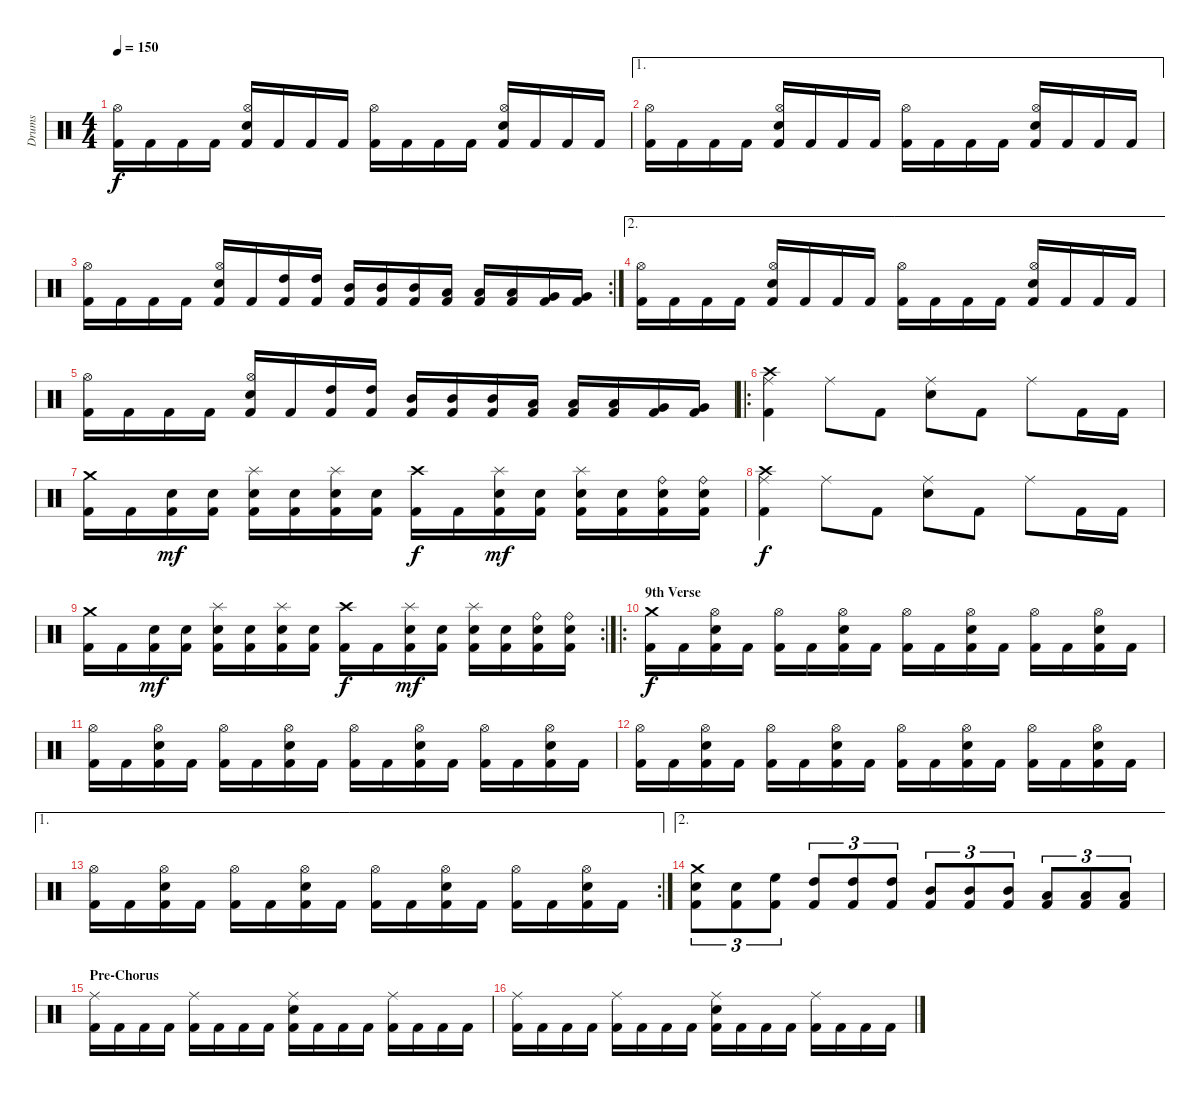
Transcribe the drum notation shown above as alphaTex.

\track ("Drums" "Drums") {instrument percussion}
\staff {score}
\articulation defaults
\ts (4 4)
\tempo 150
\clef neutral
\ks c
("Kick (hit) 2" "Hi-Hat (open)").16{dy f} "Kick (hit) 2".16 "Kick (hit) 2".16 "Kick (hit) 2".16 ("Kick (hit) 2" "Electric Snare (hit)" "Hi-Hat (open)").16 "Kick (hit) 2".16 "Kick (hit) 2".16 "Kick (hit) 2".16 ("Kick (hit) 2" "Hi-Hat (open)").16 "Kick (hit) 2".16 "Kick (hit) 2".16 "Kick (hit) 2".16 ("Kick (hit) 2" "Electric Snare (hit)" "Hi-Hat (open)").16 "Kick (hit) 2".16 "Kick (hit) 2".16 "Kick (hit) 2".16 |
\ae 1
("Kick (hit) 2" "Hi-Hat (open)").16 "Kick (hit) 2".16 "Kick (hit) 2".16 "Kick (hit) 2".16 ("Kick (hit) 2" "Electric Snare (hit)" "Hi-Hat (open)").16 "Kick (hit) 2".16 "Kick (hit) 2".16 "Kick (hit) 2".16 ("Kick (hit) 2" "Hi-Hat (open)").16 "Kick (hit) 2".16 "Kick (hit) 2".16 "Kick (hit) 2".16 ("Kick (hit) 2" "Electric Snare (hit)" "Hi-Hat (open)").16 "Kick (hit) 2".16 "Kick (hit) 2".16 "Kick (hit) 2".16 |
\rc 2
("Kick (hit) 2" "Hi-Hat (open)").16 "Kick (hit) 2".16 "Kick (hit) 2".16 "Kick (hit) 2".16 ("Kick (hit) 2" "Electric Snare (hit)" "Hi-Hat (open)").16 "Kick (hit) 2".16 ("Kick (hit) 2" "High Tom (hit)").16 ("Kick (hit) 2" "High Tom (hit)").16 ("Kick (hit) 2" "Mid Tom (hit)").16 ("Kick (hit) 2" "Mid Tom (hit)").16 ("Kick (hit) 2" "Mid Tom (hit)").16 ("Kick (hit) 2" "Low Tom (hit)").16 ("Kick (hit) 2" "Low Tom (hit)").16 ("Kick (hit) 2" "Low Tom (hit)").16 ("Kick (hit) 2" "Very Low Tom (hit)").16 ("Kick (hit) 2" "Very Low Tom (hit)").16 |
\ae 2
("Kick (hit) 2" "Hi-Hat (open)").16 "Kick (hit) 2".16 "Kick (hit) 2".16 "Kick (hit) 2".16 ("Kick (hit) 2" "Electric Snare (hit)" "Hi-Hat (open)").16 "Kick (hit) 2".16 "Kick (hit) 2".16 "Kick (hit) 2".16 ("Kick (hit) 2" "Hi-Hat (open)").16 "Kick (hit) 2".16 "Kick (hit) 2".16 "Kick (hit) 2".16 ("Kick (hit) 2" "Electric Snare (hit)" "Hi-Hat (open)").16 "Kick (hit) 2".16 "Kick (hit) 2".16 "Kick (hit) 2".16 |
("Kick (hit) 2" "Hi-Hat (open)").16 "Kick (hit) 2".16 "Kick (hit) 2".16 "Kick (hit) 2".16 ("Kick (hit) 2" "Electric Snare (hit)" "Hi-Hat (open)").16 "Kick (hit) 2".16 ("Kick (hit) 2" "High Tom (hit)").16 ("Kick (hit) 2" "High Tom (hit)").16 ("Kick (hit) 2" "Mid Tom (hit)").16 ("Kick (hit) 2" "Mid Tom (hit)").16 ("Kick (hit) 2" "Mid Tom (hit)").16 ("Kick (hit) 2" "Low Tom (hit)").16 ("Kick (hit) 2" "Low Tom (hit)").16 ("Kick (hit) 2" "Low Tom (hit)").16 ("Kick (hit) 2" "Very Low Tom (hit)").16 ("Kick (hit) 2" "Very Low Tom (hit)").16 |
\ro
("Kick (hit) 2" "Ride (middle)" "Crash high (hit)").4 "Ride (middle)".8 "Kick (hit) 2".8 ("Electric Snare (hit)" "Ride (middle)").8 "Kick (hit) 2".8 "Ride (middle)".8 "Kick (hit) 2".16 "Kick (hit) 2".16 |
("Kick (hit) 2" "Crash medium (hit)").16 "Kick (hit) 2".16 ("Kick (hit) 2" "Electric Snare (hit)").16{dy mf} ("Kick (hit) 2" "Electric Snare (hit)").16 ("Kick (hit) 2" "Electric Snare (hit)" "Splash (hit)").16 ("Kick (hit) 2" "Electric Snare (hit)").16 ("Kick (hit) 2" "Electric Snare (hit)" "Splash (hit)").16 ("Kick (hit) 2" "Electric Snare (hit)").16 ("Kick (hit) 2" "Crash high (hit)").16{dy f} "Kick (hit) 2".16 ("Kick (hit) 2" "Electric Snare (hit)" "Splash (hit)").16{dy mf} ("Kick (hit) 2" "Electric Snare (hit)").16 ("Kick (hit) 2" "Electric Snare (hit)" "Splash (hit)").16 ("Kick (hit) 2" "Electric Snare (hit)").16 ("Kick (hit) 2" "Electric Snare (hit)" "Ride (bell)").16 ("Kick (hit) 2" "Electric Snare (hit)" "Ride (bell)").16 |
("Kick (hit) 2" "Ride (middle)" "Crash high (hit)").4{dy f} "Ride (middle)".8 "Kick (hit) 2".8 ("Electric Snare (hit)" "Ride (middle)").8 "Kick (hit) 2".8 "Ride (middle)".8 "Kick (hit) 2".16 "Kick (hit) 2".16 |
\rc 2
("Kick (hit) 2" "Crash medium (hit)").16 "Kick (hit) 2".16 ("Kick (hit) 2" "Electric Snare (hit)").16{dy mf} ("Kick (hit) 2" "Electric Snare (hit)").16 ("Kick (hit) 2" "Electric Snare (hit)" "Splash (hit)").16 ("Kick (hit) 2" "Electric Snare (hit)").16 ("Kick (hit) 2" "Electric Snare (hit)" "Splash (hit)").16 ("Kick (hit) 2" "Electric Snare (hit)").16 ("Kick (hit) 2" "Crash high (hit)").16{dy f} "Kick (hit) 2".16 ("Kick (hit) 2" "Electric Snare (hit)" "Splash (hit)").16{dy mf} ("Kick (hit) 2" "Electric Snare (hit)").16 ("Kick (hit) 2" "Electric Snare (hit)" "Splash (hit)").16 ("Kick (hit) 2" "Electric Snare (hit)").16 ("Kick (hit) 2" "Electric Snare (hit)" "Ride (bell)").16 ("Kick (hit) 2" "Electric Snare (hit)" "Ride (bell)").16 |
\ro
\section ("" "9th Verse")
("Kick (hit) 2" "Crash medium (hit)").16{dy f} "Kick (hit) 2".16 ("Kick (hit) 2" "Electric Snare (hit)" "Hi-Hat (open)").16 "Kick (hit) 2".16 ("Kick (hit) 2" "Hi-Hat (open)").16 "Kick (hit) 2".16 ("Kick (hit) 2" "Electric Snare (hit)" "Hi-Hat (open)").16 "Kick (hit) 2".16 ("Kick (hit) 2" "Hi-Hat (open)").16 "Kick (hit) 2".16 ("Kick (hit) 2" "Electric Snare (hit)" "Hi-Hat (open)").16 "Kick (hit) 2".16 ("Kick (hit) 2" "Hi-Hat (open)").16 "Kick (hit) 2".16 ("Kick (hit) 2" "Electric Snare (hit)" "Hi-Hat (open)").16 "Kick (hit) 2".16 |
("Kick (hit) 2" "Hi-Hat (open)").16 "Kick (hit) 2".16 ("Kick (hit) 2" "Electric Snare (hit)" "Hi-Hat (open)").16 "Kick (hit) 2".16 ("Kick (hit) 2" "Hi-Hat (open)").16 "Kick (hit) 2".16 ("Kick (hit) 2" "Electric Snare (hit)" "Hi-Hat (open)").16 "Kick (hit) 2".16 ("Kick (hit) 2" "Hi-Hat (open)").16 "Kick (hit) 2".16 ("Kick (hit) 2" "Electric Snare (hit)" "Hi-Hat (open)").16 "Kick (hit) 2".16 ("Kick (hit) 2" "Hi-Hat (open)").16 "Kick (hit) 2".16 ("Kick (hit) 2" "Electric Snare (hit)" "Hi-Hat (open)").16 "Kick (hit) 2".16 |
("Kick (hit) 2" "Hi-Hat (open)").16 "Kick (hit) 2".16 ("Kick (hit) 2" "Electric Snare (hit)" "Hi-Hat (open)").16 "Kick (hit) 2".16 ("Kick (hit) 2" "Hi-Hat (open)").16 "Kick (hit) 2".16 ("Kick (hit) 2" "Electric Snare (hit)" "Hi-Hat (open)").16 "Kick (hit) 2".16 ("Kick (hit) 2" "Hi-Hat (open)").16 "Kick (hit) 2".16 ("Kick (hit) 2" "Electric Snare (hit)" "Hi-Hat (open)").16 "Kick (hit) 2".16 ("Kick (hit) 2" "Hi-Hat (open)").16 "Kick (hit) 2".16 ("Kick (hit) 2" "Electric Snare (hit)" "Hi-Hat (open)").16 "Kick (hit) 2".16 |
\ae 1
\rc 2
("Kick (hit) 2" "Hi-Hat (open)").16 "Kick (hit) 2".16 ("Kick (hit) 2" "Electric Snare (hit)" "Hi-Hat (open)").16 "Kick (hit) 2".16 ("Kick (hit) 2" "Hi-Hat (open)").16 "Kick (hit) 2".16 ("Kick (hit) 2" "Electric Snare (hit)" "Hi-Hat (open)").16 "Kick (hit) 2".16 ("Kick (hit) 2" "Hi-Hat (open)").16 "Kick (hit) 2".16 ("Kick (hit) 2" "Electric Snare (hit)" "Hi-Hat (open)").16 "Kick (hit) 2".16 ("Kick (hit) 2" "Hi-Hat (open)").16 "Kick (hit) 2".16 ("Kick (hit) 2" "Electric Snare (hit)" "Hi-Hat (open)").16 "Kick (hit) 2".16 |
\ae 2
("Kick (hit) 2" "Electric Snare (hit)" "Crash medium (hit)").8{tu (3 2)} ("Kick (hit) 2" "Electric Snare (hit)").8{tu (3 2)} ("Kick (hit) 2" "High Floor Tom (hit)").8{tu (3 2)} ("Kick (hit) 2" "High Tom (hit)").8{tu (3 2)} ("Kick (hit) 2" "High Tom (hit)").8{tu (3 2)} ("Kick (hit) 2" "High Tom (hit)").8{tu (3 2)} ("Kick (hit) 2" "Mid Tom (hit)").8{tu (3 2)} ("Kick (hit) 2" "Mid Tom (hit)").8{tu (3 2)} ("Kick (hit) 2" "Mid Tom (hit)").8{tu (3 2)} ("Kick (hit) 2" "Low Tom (hit)").8{tu (3 2)} ("Kick (hit) 2" "Low Tom (hit)").8{tu (3 2)} ("Kick (hit) 2" "Low Tom (hit)").8{tu (3 2)} |
\section ("" "Pre-Chorus")
("Kick (hit) 2" "Ride (middle)").16 "Kick (hit) 2".16 "Kick (hit) 2".16 "Kick (hit) 2".16 ("Kick (hit) 2" "Ride (middle)").16 "Kick (hit) 2".16 "Kick (hit) 2".16 "Kick (hit) 2".16 ("Kick (hit) 2" "Electric Snare (hit)" "Ride (middle)").16 "Kick (hit) 2".16 "Kick (hit) 2".16 "Kick (hit) 2".16 ("Kick (hit) 2" "Ride (middle)").16 "Kick (hit) 2".16 "Kick (hit) 2".16 "Kick (hit) 2".16 |
("Kick (hit) 2" "Ride (middle)").16 "Kick (hit) 2".16 "Kick (hit) 2".16 "Kick (hit) 2".16 ("Kick (hit) 2" "Ride (middle)").16 "Kick (hit) 2".16 "Kick (hit) 2".16 "Kick (hit) 2".16 ("Kick (hit) 2" "Electric Snare (hit)" "Ride (middle)").16 "Kick (hit) 2".16 "Kick (hit) 2".16 "Kick (hit) 2".16 ("Kick (hit) 2" "Ride (middle)").16 "Kick (hit) 2".16 "Kick (hit) 2".16 "Kick (hit) 2".16
